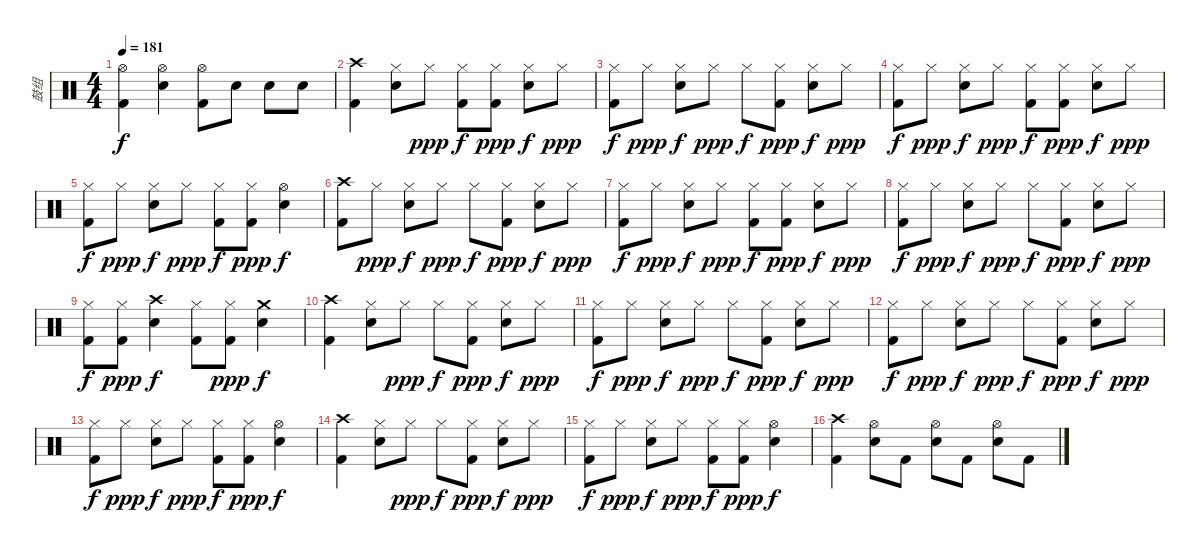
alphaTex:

\track ("鼓组" "鼓组") {instrument percussion}
\staff {score}
\articulation defaults
\ts (4 4)
\tempo 181
\clef neutral
\ks c
("Hi-Hat (open)" "Kick (hit) 2").4{dy f} ("Hi-Hat (open)" "Snare (hit) 2").4 ("Hi-Hat (open)" "Kick (hit) 2").8 "Snare (hit) 2".8 "Snare (hit) 2".8 "Snare (hit) 2".8 |
("Crash high (hit)" "Kick (hit) 2").4 ("Hi-Hat (closed)" "Snare (hit) 2").8 "Hi-Hat (closed)".8{dy ppp} ("Hi-Hat (closed)" "Kick (hit) 2").8{dy f} ("Hi-Hat (closed)" "Kick (hit) 2").8{dy ppp} ("Hi-Hat (closed)" "Snare (hit) 2").8{dy f} "Hi-Hat (closed)".8{dy ppp} |
("Hi-Hat (closed)" "Kick (hit) 2").8{dy f} "Hi-Hat (closed)".8{dy ppp} ("Hi-Hat (closed)" "Snare (hit) 2").8{dy f} "Hi-Hat (closed)".8{dy ppp} "Hi-Hat (closed)".8{dy f} ("Hi-Hat (closed)" "Kick (hit) 2").8{dy ppp} ("Hi-Hat (closed)" "Snare (hit) 2").8{dy f} "Hi-Hat (closed)".8{dy ppp} |
("Hi-Hat (closed)" "Kick (hit) 2").8{dy f} "Hi-Hat (closed)".8{dy ppp} ("Hi-Hat (closed)" "Snare (hit) 2").8{dy f} "Hi-Hat (closed)".8{dy ppp} ("Hi-Hat (closed)" "Kick (hit) 2").8{dy f} ("Hi-Hat (closed)" "Kick (hit) 2").8{dy ppp} ("Hi-Hat (closed)" "Snare (hit) 2").8{dy f} "Hi-Hat (closed)".8{dy ppp} |
("Hi-Hat (closed)" "Kick (hit) 2").8{dy f} "Hi-Hat (closed)".8{dy ppp} ("Hi-Hat (closed)" "Snare (hit) 2").8{dy f} "Hi-Hat (closed)".8{dy ppp} ("Hi-Hat (closed)" "Kick (hit) 2").8{dy f} ("Hi-Hat (closed)" "Kick (hit) 2").8{dy ppp} ("Hi-Hat (open)" "Snare (hit) 2").4{dy f} |
("Crash high (hit)" "Kick (hit) 2").8 "Hi-Hat (closed)".8{dy ppp} ("Hi-Hat (closed)" "Snare (hit) 2").8{dy f} "Hi-Hat (closed)".8{dy ppp} "Hi-Hat (closed)".8{dy f} ("Hi-Hat (closed)" "Kick (hit) 2").8{dy ppp} ("Hi-Hat (closed)" "Snare (hit) 2").8{dy f} "Hi-Hat (closed)".8{dy ppp} |
("Hi-Hat (closed)" "Kick (hit) 2").8{dy f} "Hi-Hat (closed)".8{dy ppp} ("Hi-Hat (closed)" "Snare (hit) 2").8{dy f} "Hi-Hat (closed)".8{dy ppp} ("Hi-Hat (closed)" "Kick (hit) 2").8{dy f} ("Hi-Hat (closed)" "Kick (hit) 2").8{dy ppp} ("Hi-Hat (closed)" "Snare (hit) 2").8{dy f} "Hi-Hat (closed)".8{dy ppp} |
("Hi-Hat (closed)" "Kick (hit) 2").8{dy f} "Hi-Hat (closed)".8{dy ppp} ("Hi-Hat (closed)" "Snare (hit) 2").8{dy f} "Hi-Hat (closed)".8{dy ppp} "Hi-Hat (closed)".8{dy f} ("Hi-Hat (closed)" "Kick (hit) 2").8{dy ppp} ("Hi-Hat (closed)" "Snare (hit) 2").8{dy f} "Hi-Hat (closed)".8{dy ppp} |
("Hi-Hat (closed)" "Kick (hit) 2").8{dy f} ("Hi-Hat (closed)" "Kick (hit) 2").8{dy ppp} ("Crash high (hit)" "Snare (hit) 2").4{dy f} ("Hi-Hat (closed)" "Kick (hit) 2").8 ("Hi-Hat (closed)" "Kick (hit) 2").8{dy ppp} ("Crash medium (hit)" "Snare (hit) 2").4{dy f} |
("Crash high (hit)" "Kick (hit) 2").4 ("Hi-Hat (closed)" "Snare (hit) 2").8 "Hi-Hat (closed)".8{dy ppp} "Hi-Hat (closed)".8{dy f} ("Hi-Hat (closed)" "Kick (hit) 2").8{dy ppp} ("Hi-Hat (closed)" "Snare (hit) 2").8{dy f} "Hi-Hat (closed)".8{dy ppp} |
("Hi-Hat (closed)" "Kick (hit) 2").8{dy f} "Hi-Hat (closed)".8{dy ppp} ("Hi-Hat (closed)" "Snare (hit) 2").8{dy f} "Hi-Hat (closed)".8{dy ppp} "Hi-Hat (closed)".8{dy f} ("Hi-Hat (closed)" "Kick (hit) 2").8{dy ppp} ("Hi-Hat (closed)" "Snare (hit) 2").8{dy f} "Hi-Hat (closed)".8{dy ppp} |
("Hi-Hat (closed)" "Kick (hit) 2").8{dy f} "Hi-Hat (closed)".8{dy ppp} ("Hi-Hat (closed)" "Snare (hit) 2").8{dy f} "Hi-Hat (closed)".8{dy ppp} "Hi-Hat (closed)".8{dy f} ("Hi-Hat (closed)" "Kick (hit) 2").8{dy ppp} ("Hi-Hat (closed)" "Snare (hit) 2").8{dy f} "Hi-Hat (closed)".8{dy ppp} |
("Hi-Hat (closed)" "Kick (hit) 2").8{dy f} "Hi-Hat (closed)".8{dy ppp} ("Hi-Hat (closed)" "Snare (hit) 2").8{dy f} "Hi-Hat (closed)".8{dy ppp} ("Hi-Hat (closed)" "Kick (hit) 2").8{dy f} ("Hi-Hat (closed)" "Kick (hit) 2").8{dy ppp} ("Hi-Hat (open)" "Snare (hit) 2").4{dy f} |
("Crash high (hit)" "Kick (hit) 2").4 ("Hi-Hat (closed)" "Snare (hit) 2").8 "Hi-Hat (closed)".8{dy ppp} "Hi-Hat (closed)".8{dy f} ("Hi-Hat (closed)" "Kick (hit) 2").8{dy ppp} ("Hi-Hat (closed)" "Snare (hit) 2").8{dy f} "Hi-Hat (closed)".8{dy ppp} |
("Hi-Hat (closed)" "Kick (hit) 2").8{dy f} "Hi-Hat (closed)".8{dy ppp} ("Hi-Hat (closed)" "Snare (hit) 2").8{dy f} "Hi-Hat (closed)".8{dy ppp} ("Hi-Hat (closed)" "Kick (hit) 2").8{dy f} ("Hi-Hat (closed)" "Kick (hit) 2").8{dy ppp} ("Hi-Hat (open)" "Snare (hit) 2").4{dy f} |
("Crash high (hit)" "Kick (hit) 2").4 ("Hi-Hat (open)" "Snare (hit) 2").8 "Kick (hit) 2".8 ("Hi-Hat (open)" "Snare (hit) 2").8 "Kick (hit) 2".8 ("Hi-Hat (open)" "Snare (hit) 2").8 "Kick (hit) 2".8
